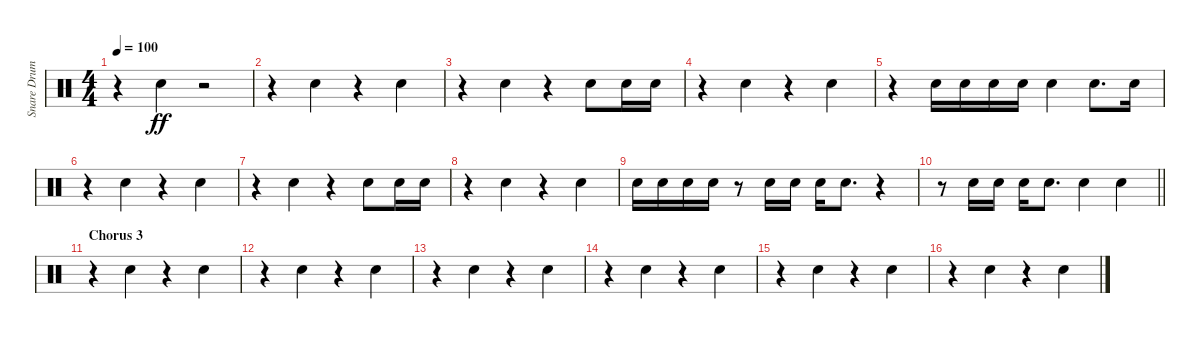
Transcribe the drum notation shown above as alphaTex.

\track ("Snare Drum" "Snare Drum") {instrument percussion}
\staff {score}
\articulation defaults
\ts (4 4)
\tempo 100
\clef neutral
\ks c
r.4{dy ff} "Electric Snare (hit)".4 r.2 |
r.4 "Electric Snare (hit)".4 r.4 "Electric Snare (hit)".4 |
r.4 "Electric Snare (hit)".4 r.4 "Electric Snare (hit)".8 "Electric Snare (hit)".16 "Electric Snare (hit)".16 |
r.4 "Electric Snare (hit)".4 r.4 "Electric Snare (hit)".4 |
r.4 "Electric Snare (hit)".16 "Electric Snare (hit)".16 "Electric Snare (hit)".16 "Electric Snare (hit)".16 "Electric Snare (hit)".4 "Electric Snare (hit)".8{d} "Electric Snare (hit)".16 |
r.4 "Electric Snare (hit)".4 r.4 "Electric Snare (hit)".4 |
r.4 "Electric Snare (hit)".4 r.4 "Electric Snare (hit)".8 "Electric Snare (hit)".16 "Electric Snare (hit)".16 |
r.4 "Electric Snare (hit)".4 r.4 "Electric Snare (hit)".4 |
"Electric Snare (hit)".16 "Electric Snare (hit)".16 "Electric Snare (hit)".16 "Electric Snare (hit)".16 r.8 "Electric Snare (hit)".16 "Electric Snare (hit)".16 "Electric Snare (hit)".16 "Electric Snare (hit)".8{d} r.4 |
\barLineRight lightlight
r.8 "Electric Snare (hit)".16 "Electric Snare (hit)".16 "Electric Snare (hit)".16 "Electric Snare (hit)".8{d} "Electric Snare (hit)".4 "Electric Snare (hit)".4 |
\section ("" "Chorus 3")
r.4 "Electric Snare (hit)".4 r.4 "Electric Snare (hit)".4 |
r.4 "Electric Snare (hit)".4 r.4 "Electric Snare (hit)".4 |
r.4 "Electric Snare (hit)".4 r.4 "Electric Snare (hit)".4 |
r.4 "Electric Snare (hit)".4 r.4 "Electric Snare (hit)".4 |
r.4 "Electric Snare (hit)".4 r.4 "Electric Snare (hit)".4 |
r.4 "Electric Snare (hit)".4 r.4 "Electric Snare (hit)".4
